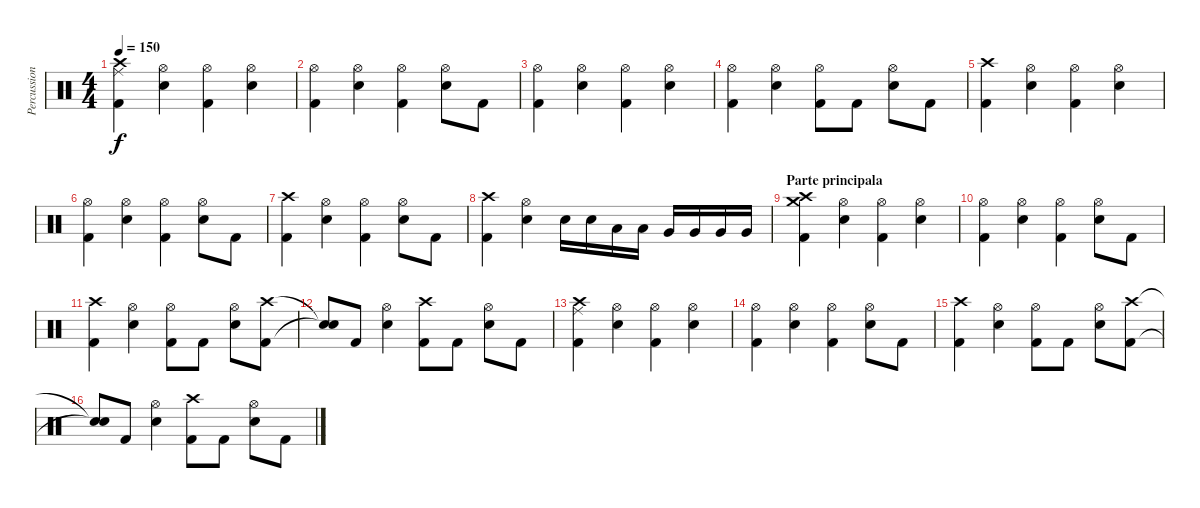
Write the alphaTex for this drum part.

\track ("Percussion" "Percussion") {instrument percussion}
\staff {score}
\articulation defaults
\ts (4 4)
\tempo 150
\clef neutral
\ks c
("Crash high (hit)" "Kick (hit) 2" "Ride (middle)").4{dy f} ("Hi-Hat (open)" "Electric Snare (hit)").4 ("Hi-Hat (open)" "Kick (hit) 2").4 ("Hi-Hat (open)" "Electric Snare (hit)").4 |
("Hi-Hat (open)" "Kick (hit) 2").4 ("Hi-Hat (open)" "Electric Snare (hit)").4 ("Hi-Hat (open)" "Kick (hit) 2").4 ("Hi-Hat (open)" "Electric Snare (hit)").8 "Kick (hit) 2".8 |
("Hi-Hat (open)" "Kick (hit) 2").4 ("Hi-Hat (open)" "Electric Snare (hit)").4 ("Hi-Hat (open)" "Kick (hit) 2").4 ("Hi-Hat (open)" "Electric Snare (hit)").4 |
("Hi-Hat (open)" "Kick (hit) 2").4 ("Hi-Hat (open)" "Electric Snare (hit)").4 ("Hi-Hat (open)" "Kick (hit) 2").8 "Kick (hit) 2".8 ("Hi-Hat (open)" "Electric Snare (hit)").8 "Kick (hit) 2".8 |
("Crash high (hit)" "Kick (hit) 2").4 ("Hi-Hat (open)" "Electric Snare (hit)").4 ("Hi-Hat (open)" "Kick (hit) 2").4 ("Hi-Hat (open)" "Electric Snare (hit)").4 |
("Hi-Hat (open)" "Kick (hit) 2").4 ("Hi-Hat (open)" "Electric Snare (hit)").4 ("Hi-Hat (open)" "Kick (hit) 2").4 ("Hi-Hat (open)" "Electric Snare (hit)").8 "Kick (hit) 2".8 |
("Crash high (hit)" "Kick (hit) 2").4 ("Hi-Hat (open)" "Electric Snare (hit)").4 ("Hi-Hat (open)" "Kick (hit) 2").4 ("Hi-Hat (open)" "Electric Snare (hit)").8 "Kick (hit) 2".8 |
("Crash high (hit)" "Kick (hit) 2").4 ("Hi-Hat (open)" "Electric Snare (hit)").4 "Electric Snare (hit)".16 "Electric Snare (hit)".16 "Low Tom (hit)".16 "Low Tom (hit)".16 "Very Low Tom (hit)".16 "Very Low Tom (hit)".16 "Very Low Tom (hit)".16 "Very Low Tom (hit)".16 |
\section ("" "Parte principala")
("Crash high (hit)" "Kick (hit) 2" "Crash medium (hit)").4 ("Hi-Hat (open)" "Electric Snare (hit)").4 ("Hi-Hat (open)" "Kick (hit) 2").4 ("Hi-Hat (open)" "Electric Snare (hit)").4 |
("Hi-Hat (open)" "Kick (hit) 2").4 ("Hi-Hat (open)" "Electric Snare (hit)").4 ("Hi-Hat (open)" "Kick (hit) 2").4 ("Hi-Hat (open)" "Electric Snare (hit)").8 "Kick (hit) 2".8 |
("Crash high (hit)" "Kick (hit) 2").4 ("Hi-Hat (open)" "Electric Snare (hit)").4 ("Hi-Hat (open)" "Kick (hit) 2").8 "Kick (hit) 2".8 ("Hi-Hat (open)" "Electric Snare (hit)").8 ("Crash high (hit)" "Kick (hit) 2").8 |
("Snare (hit)"{t} "Snare (hit)"{t}).8 "Kick (hit) 2".8 ("Hi-Hat (open)" "Electric Snare (hit)").4 ("Crash high (hit)" "Kick (hit) 2").8 "Kick (hit) 2".8 ("Hi-Hat (open)" "Electric Snare (hit)").8 "Kick (hit) 2".8 |
("Crash high (hit)" "Kick (hit) 2" "Ride (middle)").4 ("Hi-Hat (open)" "Electric Snare (hit)").4 ("Hi-Hat (open)" "Kick (hit) 2").4 ("Hi-Hat (open)" "Electric Snare (hit)").4 |
("Hi-Hat (open)" "Kick (hit) 2").4 ("Hi-Hat (open)" "Electric Snare (hit)").4 ("Hi-Hat (open)" "Kick (hit) 2").4 ("Hi-Hat (open)" "Electric Snare (hit)").8 "Kick (hit) 2".8 |
("Crash high (hit)" "Kick (hit) 2").4 ("Hi-Hat (open)" "Electric Snare (hit)").4 ("Hi-Hat (open)" "Kick (hit) 2").8 "Kick (hit) 2".8 ("Hi-Hat (open)" "Electric Snare (hit)").8 ("Crash high (hit)" "Kick (hit) 2").8 |
("Snare (hit)"{t} "Snare (hit)"{t}).8 "Kick (hit) 2".8 ("Hi-Hat (open)" "Electric Snare (hit)").4 ("Crash high (hit)" "Kick (hit) 2").8 "Kick (hit) 2".8 ("Hi-Hat (open)" "Electric Snare (hit)").8 "Kick (hit) 2".8
